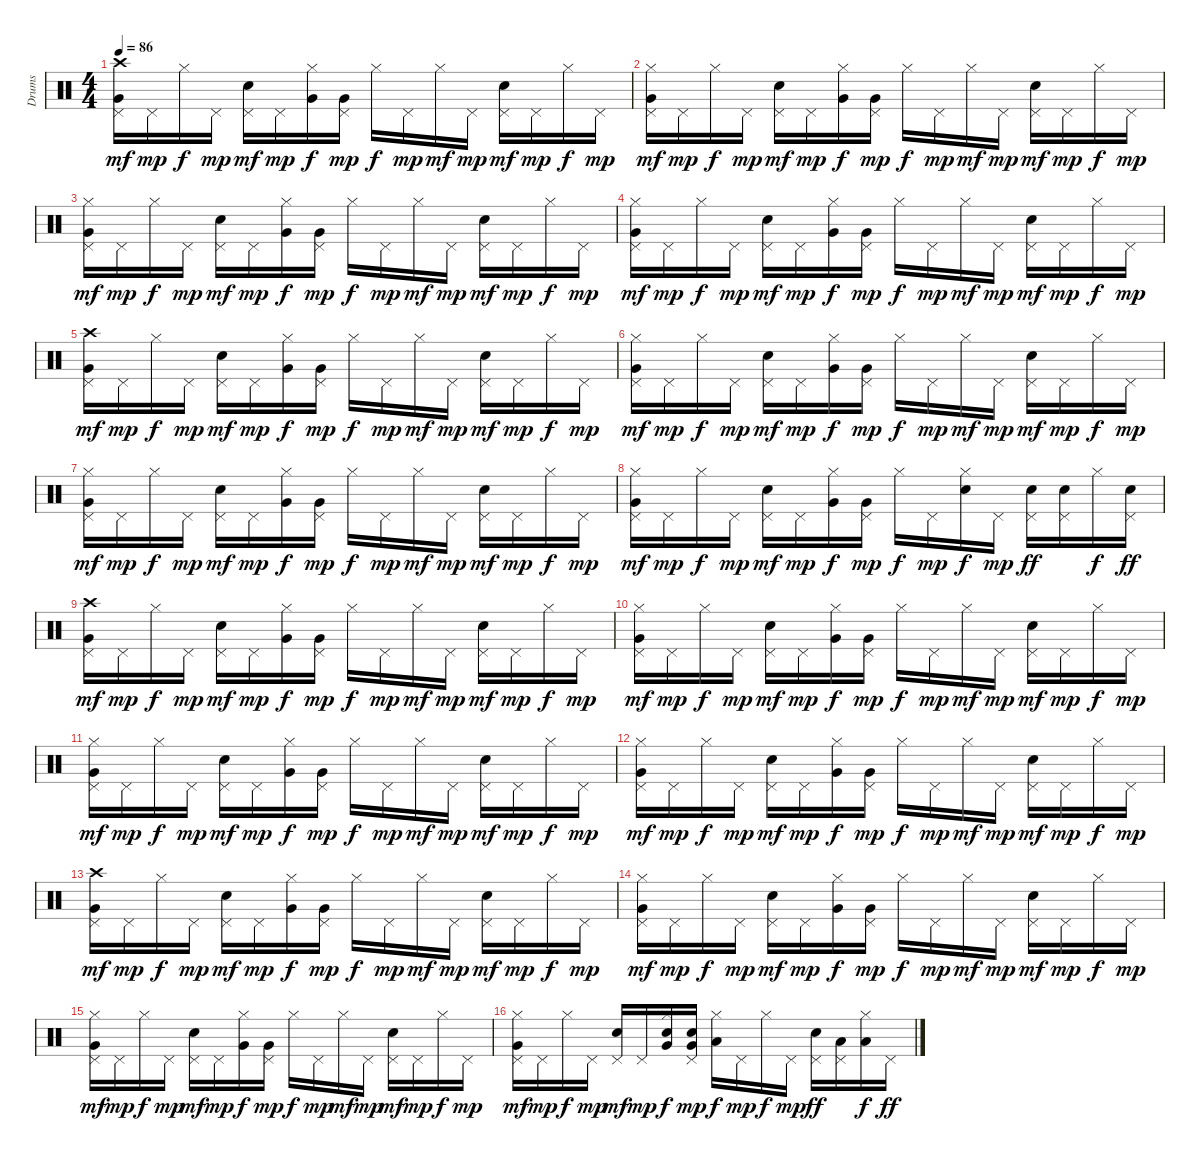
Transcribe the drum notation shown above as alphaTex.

\track ("Drums" "Drums") {instrument percussion}
\staff {score}
\articulation defaults
\ts (4 4)
\tempo 86
\clef neutral
\ks c
("Crash high (hit)" "Very Low Tom (hit)" "Pedal Hi-Hat (hit)").16{dy mf} "Pedal Hi-Hat (hit)".16{dy mp} "Hi-Hat (closed)".16{dy f} "Pedal Hi-Hat (hit)".16{dy mp} ("Electric Snare (hit)" "Pedal Hi-Hat (hit)").16{dy mf} "Pedal Hi-Hat (hit)".16{dy mp} ("Hi-Hat (closed)" "Very Low Tom (hit)").16{dy f} ("Very Low Tom (hit)" "Pedal Hi-Hat (hit)").16{dy mp} "Hi-Hat (closed)".16{dy f} "Pedal Hi-Hat (hit)".16{dy mp} "Hi-Hat (closed)".16{dy mf} "Pedal Hi-Hat (hit)".16{dy mp} ("Electric Snare (hit)" "Pedal Hi-Hat (hit)").16{dy mf} "Pedal Hi-Hat (hit)".16{dy mp} "Hi-Hat (closed)".16{dy f} "Pedal Hi-Hat (hit)".16{dy mp} |
("Hi-Hat (closed)" "Very Low Tom (hit)" "Pedal Hi-Hat (hit)").16{dy mf} "Pedal Hi-Hat (hit)".16{dy mp} "Hi-Hat (closed)".16{dy f} "Pedal Hi-Hat (hit)".16{dy mp} ("Electric Snare (hit)" "Pedal Hi-Hat (hit)").16{dy mf} "Pedal Hi-Hat (hit)".16{dy mp} ("Hi-Hat (closed)" "Very Low Tom (hit)").16{dy f} ("Very Low Tom (hit)" "Pedal Hi-Hat (hit)").16{dy mp} "Hi-Hat (closed)".16{dy f} "Pedal Hi-Hat (hit)".16{dy mp} "Hi-Hat (closed)".16{dy mf} "Pedal Hi-Hat (hit)".16{dy mp} ("Electric Snare (hit)" "Pedal Hi-Hat (hit)").16{dy mf} "Pedal Hi-Hat (hit)".16{dy mp} "Hi-Hat (closed)".16{dy f} "Pedal Hi-Hat (hit)".16{dy mp} |
("Hi-Hat (closed)" "Very Low Tom (hit)" "Pedal Hi-Hat (hit)").16{dy mf} "Pedal Hi-Hat (hit)".16{dy mp} "Hi-Hat (closed)".16{dy f} "Pedal Hi-Hat (hit)".16{dy mp} ("Electric Snare (hit)" "Pedal Hi-Hat (hit)").16{dy mf} "Pedal Hi-Hat (hit)".16{dy mp} ("Hi-Hat (closed)" "Very Low Tom (hit)").16{dy f} ("Very Low Tom (hit)" "Pedal Hi-Hat (hit)").16{dy mp} "Hi-Hat (closed)".16{dy f} "Pedal Hi-Hat (hit)".16{dy mp} "Hi-Hat (closed)".16{dy mf} "Pedal Hi-Hat (hit)".16{dy mp} ("Electric Snare (hit)" "Pedal Hi-Hat (hit)").16{dy mf} "Pedal Hi-Hat (hit)".16{dy mp} "Hi-Hat (closed)".16{dy f} "Pedal Hi-Hat (hit)".16{dy mp} |
("Hi-Hat (closed)" "Very Low Tom (hit)" "Pedal Hi-Hat (hit)").16{dy mf} "Pedal Hi-Hat (hit)".16{dy mp} "Hi-Hat (closed)".16{dy f} "Pedal Hi-Hat (hit)".16{dy mp} ("Electric Snare (hit)" "Pedal Hi-Hat (hit)").16{dy mf} "Pedal Hi-Hat (hit)".16{dy mp} ("Hi-Hat (closed)" "Very Low Tom (hit)").16{dy f} ("Very Low Tom (hit)" "Pedal Hi-Hat (hit)").16{dy mp} "Hi-Hat (closed)".16{dy f} "Pedal Hi-Hat (hit)".16{dy mp} "Hi-Hat (closed)".16{dy mf} "Pedal Hi-Hat (hit)".16{dy mp} ("Electric Snare (hit)" "Pedal Hi-Hat (hit)").16{dy mf} "Pedal Hi-Hat (hit)".16{dy mp} "Hi-Hat (closed)".16{dy f} "Pedal Hi-Hat (hit)".16{dy mp} |
("Crash high (hit)" "Very Low Tom (hit)" "Pedal Hi-Hat (hit)").16{dy mf} "Pedal Hi-Hat (hit)".16{dy mp} "Hi-Hat (closed)".16{dy f} "Pedal Hi-Hat (hit)".16{dy mp} ("Electric Snare (hit)" "Pedal Hi-Hat (hit)").16{dy mf} "Pedal Hi-Hat (hit)".16{dy mp} ("Hi-Hat (closed)" "Very Low Tom (hit)").16{dy f} ("Very Low Tom (hit)" "Pedal Hi-Hat (hit)").16{dy mp} "Hi-Hat (closed)".16{dy f} "Pedal Hi-Hat (hit)".16{dy mp} "Hi-Hat (closed)".16{dy mf} "Pedal Hi-Hat (hit)".16{dy mp} ("Electric Snare (hit)" "Pedal Hi-Hat (hit)").16{dy mf} "Pedal Hi-Hat (hit)".16{dy mp} "Hi-Hat (closed)".16{dy f} "Pedal Hi-Hat (hit)".16{dy mp} |
("Hi-Hat (closed)" "Very Low Tom (hit)" "Pedal Hi-Hat (hit)").16{dy mf} "Pedal Hi-Hat (hit)".16{dy mp} "Hi-Hat (closed)".16{dy f} "Pedal Hi-Hat (hit)".16{dy mp} ("Electric Snare (hit)" "Pedal Hi-Hat (hit)").16{dy mf} "Pedal Hi-Hat (hit)".16{dy mp} ("Hi-Hat (closed)" "Very Low Tom (hit)").16{dy f} ("Very Low Tom (hit)" "Pedal Hi-Hat (hit)").16{dy mp} "Hi-Hat (closed)".16{dy f} "Pedal Hi-Hat (hit)".16{dy mp} "Hi-Hat (closed)".16{dy mf} "Pedal Hi-Hat (hit)".16{dy mp} ("Electric Snare (hit)" "Pedal Hi-Hat (hit)").16{dy mf} "Pedal Hi-Hat (hit)".16{dy mp} "Hi-Hat (closed)".16{dy f} "Pedal Hi-Hat (hit)".16{dy mp} |
("Hi-Hat (closed)" "Very Low Tom (hit)" "Pedal Hi-Hat (hit)").16{dy mf} "Pedal Hi-Hat (hit)".16{dy mp} "Hi-Hat (closed)".16{dy f} "Pedal Hi-Hat (hit)".16{dy mp} ("Electric Snare (hit)" "Pedal Hi-Hat (hit)").16{dy mf} "Pedal Hi-Hat (hit)".16{dy mp} ("Hi-Hat (closed)" "Very Low Tom (hit)").16{dy f} ("Very Low Tom (hit)" "Pedal Hi-Hat (hit)").16{dy mp} "Hi-Hat (closed)".16{dy f} "Pedal Hi-Hat (hit)".16{dy mp} "Hi-Hat (closed)".16{dy mf} "Pedal Hi-Hat (hit)".16{dy mp} ("Electric Snare (hit)" "Pedal Hi-Hat (hit)").16{dy mf} "Pedal Hi-Hat (hit)".16{dy mp} "Hi-Hat (closed)".16{dy f} "Pedal Hi-Hat (hit)".16{dy mp} |
("Hi-Hat (closed)" "Very Low Tom (hit)" "Pedal Hi-Hat (hit)").16{dy mf} "Pedal Hi-Hat (hit)".16{dy mp} "Hi-Hat (closed)".16{dy f} "Pedal Hi-Hat (hit)".16{dy mp} ("Electric Snare (hit)" "Pedal Hi-Hat (hit)").16{dy mf} "Pedal Hi-Hat (hit)".16{dy mp} ("Hi-Hat (closed)" "Very Low Tom (hit)").16{dy f} ("Very Low Tom (hit)" "Pedal Hi-Hat (hit)").16{dy mp} "Hi-Hat (closed)".16{dy f} "Pedal Hi-Hat (hit)".16{dy mp} ("Hi-Hat (closed)" "Electric Snare (hit)").16{dy f} "Pedal Hi-Hat (hit)".16{dy mp} ("Electric Snare (hit)" "Pedal Hi-Hat (hit)").16{dy ff} ("Electric Snare (hit)" "Pedal Hi-Hat (hit)").16 "Hi-Hat (closed)".16{dy f} ("Electric Snare (hit)" "Pedal Hi-Hat (hit)").16{dy ff} |
("Crash high (hit)" "Very Low Tom (hit)" "Pedal Hi-Hat (hit)").16{dy mf} "Pedal Hi-Hat (hit)".16{dy mp} "Hi-Hat (closed)".16{dy f} "Pedal Hi-Hat (hit)".16{dy mp} ("Electric Snare (hit)" "Pedal Hi-Hat (hit)").16{dy mf} "Pedal Hi-Hat (hit)".16{dy mp} ("Hi-Hat (closed)" "Very Low Tom (hit)").16{dy f} ("Very Low Tom (hit)" "Pedal Hi-Hat (hit)").16{dy mp} "Hi-Hat (closed)".16{dy f} "Pedal Hi-Hat (hit)".16{dy mp} "Hi-Hat (closed)".16{dy mf} "Pedal Hi-Hat (hit)".16{dy mp} ("Electric Snare (hit)" "Pedal Hi-Hat (hit)").16{dy mf} "Pedal Hi-Hat (hit)".16{dy mp} "Hi-Hat (closed)".16{dy f} "Pedal Hi-Hat (hit)".16{dy mp} |
("Hi-Hat (closed)" "Very Low Tom (hit)" "Pedal Hi-Hat (hit)").16{dy mf} "Pedal Hi-Hat (hit)".16{dy mp} "Hi-Hat (closed)".16{dy f} "Pedal Hi-Hat (hit)".16{dy mp} ("Electric Snare (hit)" "Pedal Hi-Hat (hit)").16{dy mf} "Pedal Hi-Hat (hit)".16{dy mp} ("Hi-Hat (closed)" "Very Low Tom (hit)").16{dy f} ("Very Low Tom (hit)" "Pedal Hi-Hat (hit)").16{dy mp} "Hi-Hat (closed)".16{dy f} "Pedal Hi-Hat (hit)".16{dy mp} "Hi-Hat (closed)".16{dy mf} "Pedal Hi-Hat (hit)".16{dy mp} ("Electric Snare (hit)" "Pedal Hi-Hat (hit)").16{dy mf} "Pedal Hi-Hat (hit)".16{dy mp} "Hi-Hat (closed)".16{dy f} "Pedal Hi-Hat (hit)".16{dy mp} |
("Hi-Hat (closed)" "Very Low Tom (hit)" "Pedal Hi-Hat (hit)").16{dy mf} "Pedal Hi-Hat (hit)".16{dy mp} "Hi-Hat (closed)".16{dy f} "Pedal Hi-Hat (hit)".16{dy mp} ("Electric Snare (hit)" "Pedal Hi-Hat (hit)").16{dy mf} "Pedal Hi-Hat (hit)".16{dy mp} ("Hi-Hat (closed)" "Very Low Tom (hit)").16{dy f} ("Very Low Tom (hit)" "Pedal Hi-Hat (hit)").16{dy mp} "Hi-Hat (closed)".16{dy f} "Pedal Hi-Hat (hit)".16{dy mp} "Hi-Hat (closed)".16{dy mf} "Pedal Hi-Hat (hit)".16{dy mp} ("Electric Snare (hit)" "Pedal Hi-Hat (hit)").16{dy mf} "Pedal Hi-Hat (hit)".16{dy mp} "Hi-Hat (closed)".16{dy f} "Pedal Hi-Hat (hit)".16{dy mp} |
("Hi-Hat (closed)" "Very Low Tom (hit)" "Pedal Hi-Hat (hit)").16{dy mf} "Pedal Hi-Hat (hit)".16{dy mp} "Hi-Hat (closed)".16{dy f} "Pedal Hi-Hat (hit)".16{dy mp} ("Electric Snare (hit)" "Pedal Hi-Hat (hit)").16{dy mf} "Pedal Hi-Hat (hit)".16{dy mp} ("Hi-Hat (closed)" "Very Low Tom (hit)").16{dy f} ("Very Low Tom (hit)" "Pedal Hi-Hat (hit)").16{dy mp} "Hi-Hat (closed)".16{dy f} "Pedal Hi-Hat (hit)".16{dy mp} "Hi-Hat (closed)".16{dy mf} "Pedal Hi-Hat (hit)".16{dy mp} ("Electric Snare (hit)" "Pedal Hi-Hat (hit)").16{dy mf} "Pedal Hi-Hat (hit)".16{dy mp} "Hi-Hat (closed)".16{dy f} "Pedal Hi-Hat (hit)".16{dy mp} |
("Crash high (hit)" "Very Low Tom (hit)" "Pedal Hi-Hat (hit)").16{dy mf} "Pedal Hi-Hat (hit)".16{dy mp} "Hi-Hat (closed)".16{dy f} "Pedal Hi-Hat (hit)".16{dy mp} ("Electric Snare (hit)" "Pedal Hi-Hat (hit)").16{dy mf} "Pedal Hi-Hat (hit)".16{dy mp} ("Hi-Hat (closed)" "Very Low Tom (hit)").16{dy f} ("Very Low Tom (hit)" "Pedal Hi-Hat (hit)").16{dy mp} "Hi-Hat (closed)".16{dy f} "Pedal Hi-Hat (hit)".16{dy mp} "Hi-Hat (closed)".16{dy mf} "Pedal Hi-Hat (hit)".16{dy mp} ("Electric Snare (hit)" "Pedal Hi-Hat (hit)").16{dy mf} "Pedal Hi-Hat (hit)".16{dy mp} "Hi-Hat (closed)".16{dy f} "Pedal Hi-Hat (hit)".16{dy mp} |
("Hi-Hat (closed)" "Very Low Tom (hit)" "Pedal Hi-Hat (hit)").16{dy mf} "Pedal Hi-Hat (hit)".16{dy mp} "Hi-Hat (closed)".16{dy f} "Pedal Hi-Hat (hit)".16{dy mp} ("Electric Snare (hit)" "Pedal Hi-Hat (hit)").16{dy mf} "Pedal Hi-Hat (hit)".16{dy mp} ("Hi-Hat (closed)" "Very Low Tom (hit)").16{dy f} ("Very Low Tom (hit)" "Pedal Hi-Hat (hit)").16{dy mp} "Hi-Hat (closed)".16{dy f} "Pedal Hi-Hat (hit)".16{dy mp} "Hi-Hat (closed)".16{dy mf} "Pedal Hi-Hat (hit)".16{dy mp} ("Electric Snare (hit)" "Pedal Hi-Hat (hit)").16{dy mf} "Pedal Hi-Hat (hit)".16{dy mp} "Hi-Hat (closed)".16{dy f} "Pedal Hi-Hat (hit)".16{dy mp} |
("Hi-Hat (closed)" "Very Low Tom (hit)" "Pedal Hi-Hat (hit)").16{dy mf} "Pedal Hi-Hat (hit)".16{dy mp} "Hi-Hat (closed)".16{dy f} "Pedal Hi-Hat (hit)".16{dy mp} ("Electric Snare (hit)" "Pedal Hi-Hat (hit)").16{dy mf} "Pedal Hi-Hat (hit)".16{dy mp} ("Hi-Hat (closed)" "Very Low Tom (hit)").16{dy f} ("Very Low Tom (hit)" "Pedal Hi-Hat (hit)").16{dy mp} "Hi-Hat (closed)".16{dy f} "Pedal Hi-Hat (hit)".16{dy mp} "Hi-Hat (closed)".16{dy mf} "Pedal Hi-Hat (hit)".16{dy mp} ("Electric Snare (hit)" "Pedal Hi-Hat (hit)").16{dy mf} "Pedal Hi-Hat (hit)".16{dy mp} "Hi-Hat (closed)".16{dy f} "Pedal Hi-Hat (hit)".16{dy mp} |
("Hi-Hat (closed)" "Very Low Tom (hit)" "Pedal Hi-Hat (hit)").16{dy mf} "Pedal Hi-Hat (hit)".16{dy mp} "Hi-Hat (closed)".16{dy f} "Pedal Hi-Hat (hit)".16{dy mp} ("Electric Snare (hit)" "Pedal Hi-Hat (hit)").16{dy mf} "Pedal Hi-Hat (hit)".16{dy mp} ("Hi-Hat (closed)" "Electric Snare (hit)" "Very Low Tom (hit)").16{dy f} ("Electric Snare (hit)" "Very Low Tom (hit)" "Pedal Hi-Hat (hit)").16{dy mp} ("Hi-Hat (closed)" "Low Tom (hit)").16{dy f} "Pedal Hi-Hat (hit)".16{dy mp} "Hi-Hat (closed)".16{dy f} "Pedal Hi-Hat (hit)".16{dy mp} ("Electric Snare (hit)" "Pedal Hi-Hat (hit)").16{dy ff} ("Low Tom (hit)" "Pedal Hi-Hat (hit)").16 ("Hi-Hat (closed)" "Low Tom (hit)").16{dy f} "Pedal Hi-Hat (hit)".16{dy ff}
